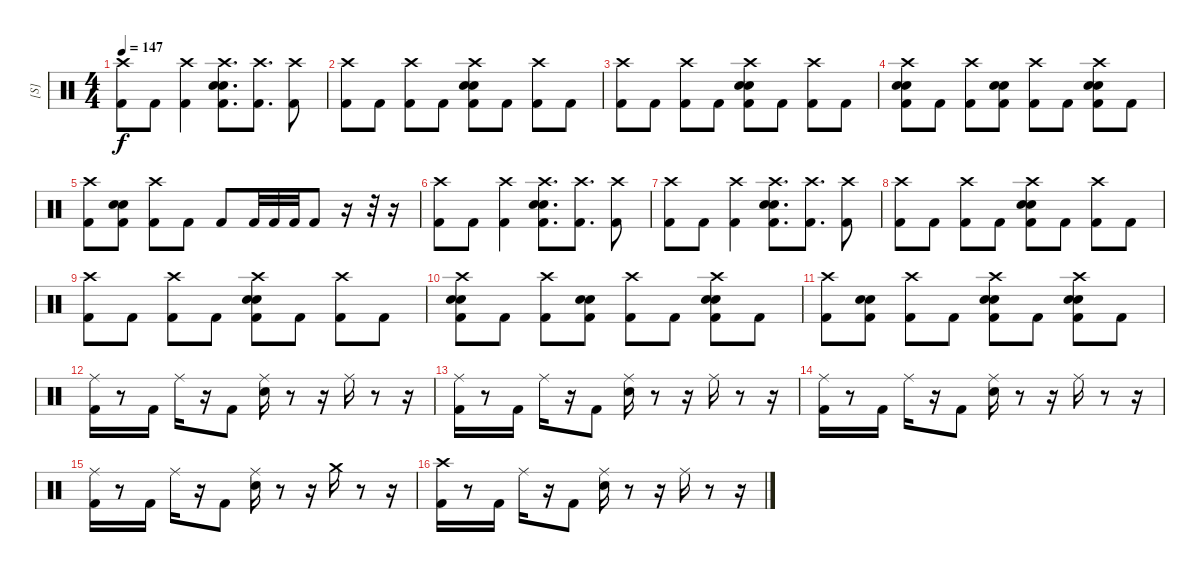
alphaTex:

\track ("[S]" "[S]") {instrument percussion}
\staff {score}
\articulation defaults
\ts (4 4)
\tempo 147
\clef neutral
\ks c
("Crash high (hit)" "Kick (hit) 2").8{dy f} "Kick (hit) 2".8 ("Crash high (hit)" "Kick (hit) 2").4 ("Crash high (hit)" "Snare (hit) 2" "Electric Snare (hit)" "Kick (hit) 2").8{d} ("Crash high (hit)" "Kick (hit) 2").8{d} ("Crash high (hit)" "Kick (hit) 2").8 |
("Crash high (hit)" "Kick (hit) 2").8 "Kick (hit) 2".8 ("Crash high (hit)" "Kick (hit) 2").8 "Kick (hit) 2".8 ("Crash high (hit)" "Snare (hit) 2" "Electric Snare (hit)" "Kick (hit) 2").8 "Kick (hit) 2".8 ("Crash high (hit)" "Kick (hit) 2").8 "Kick (hit) 2".8 |
("Crash high (hit)" "Kick (hit) 2").8 "Kick (hit) 2".8 ("Crash high (hit)" "Kick (hit) 2").8 "Kick (hit) 2".8 ("Crash high (hit)" "Electric Snare (hit)" "Snare (hit) 2" "Kick (hit) 2").8 "Kick (hit) 2".8 ("Crash high (hit)" "Kick (hit) 2").8 "Kick (hit) 2".8 |
("Crash high (hit)" "Snare (hit) 2" "Electric Snare (hit)" "Kick (hit) 2").8 "Kick (hit) 2".8 ("Crash high (hit)" "Kick (hit) 2").8 ("Snare (hit) 2" "Electric Snare (hit)" "Kick (hit) 2").8 ("Crash high (hit)" "Kick (hit) 2").8 "Kick (hit) 2".8 ("Crash high (hit)" "Snare (hit) 2" "Electric Snare (hit)" "Kick (hit) 2").8 "Kick (hit) 2".8 |
("Crash high (hit)" "Kick (hit) 2").8 ("Snare (hit) 2" "Electric Snare (hit)" "Kick (hit) 2").8 ("Crash high (hit)" "Kick (hit) 2").8 "Kick (hit) 2".8 "Kick (hit) 2".8 "Kick (hit) 2".32 "Kick (hit) 2".32 "Kick (hit) 2".32 "Kick (hit) 2".8 r.16 r.32 r.16 |
("Crash high (hit)" "Kick (hit) 2").8 "Kick (hit) 2".8 ("Crash high (hit)" "Kick (hit) 2").4 ("Crash high (hit)" "Electric Snare (hit)" "Snare (hit) 2" "Kick (hit) 2").8{d} ("Crash high (hit)" "Kick (hit) 2").8{d} ("Crash high (hit)" "Kick (hit) 2").8 |
("Crash high (hit)" "Kick (hit) 2").8 "Kick (hit) 2".8 ("Crash high (hit)" "Kick (hit) 2").4 ("Crash high (hit)" "Snare (hit) 2" "Electric Snare (hit)" "Kick (hit) 2").8{d} ("Crash high (hit)" "Kick (hit) 2").8{d} ("Crash high (hit)" "Kick (hit) 2").8 |
("Crash high (hit)" "Kick (hit) 2").8 "Kick (hit) 2".8 ("Crash high (hit)" "Kick (hit) 2").8 "Kick (hit) 2".8 ("Crash high (hit)" "Snare (hit) 2" "Electric Snare (hit)" "Kick (hit) 2").8 "Kick (hit) 2".8 ("Crash high (hit)" "Kick (hit) 2").8 "Kick (hit) 2".8 |
("Crash high (hit)" "Kick (hit) 2").8 "Kick (hit) 2".8 ("Crash high (hit)" "Kick (hit) 2").8 "Kick (hit) 2".8 ("Crash high (hit)" "Electric Snare (hit)" "Snare (hit) 2" "Kick (hit) 2").8 "Kick (hit) 2".8 ("Crash high (hit)" "Kick (hit) 2").8 "Kick (hit) 2".8 |
("Crash high (hit)" "Snare (hit) 2" "Electric Snare (hit)" "Kick (hit) 2").8 "Kick (hit) 2".8 ("Crash high (hit)" "Kick (hit) 2").8 ("Snare (hit) 2" "Electric Snare (hit)" "Kick (hit) 2").8 ("Crash high (hit)" "Kick (hit) 2").8 "Kick (hit) 2".8 ("Crash high (hit)" "Snare (hit) 2" "Electric Snare (hit)" "Kick (hit) 2").8 "Kick (hit) 2".8 |
("Crash high (hit)" "Kick (hit) 2").8 ("Snare (hit) 2" "Electric Snare (hit)" "Kick (hit) 2").8 ("Crash high (hit)" "Kick (hit) 2").8 "Kick (hit) 2".8 ("Crash high (hit)" "Snare (hit) 2" "Electric Snare (hit)" "Kick (hit) 2").8 "Kick (hit) 2".8 ("Crash high (hit)" "Snare (hit) 2" "Electric Snare (hit)" "Kick (hit) 2").8 "Kick (hit) 2".8 |
("Ride (middle)" "Kick (hit) 2").16 r.8 "Kick (hit) 2".16 "Ride (middle)".16 r.16 "Kick (hit) 2".8 ("Ride (middle)" "Snare (hit) 2").16 r.8 r.16 "Ride (middle)".16 r.8 r.16 |
("Ride (middle)" "Kick (hit) 2").16 r.8 "Kick (hit) 2".16 "Ride (middle)".16 r.16 "Kick (hit) 2".8 ("Ride (middle)" "Snare (hit) 2").16 r.8 r.16 "Ride (middle)".16 r.8 r.16 |
("Ride (middle)" "Kick (hit) 2").16 r.8 "Kick (hit) 2".16 "Ride (middle)".16 r.16 "Kick (hit) 2".8 ("Ride (middle)" "Snare (hit) 2").16 r.8 r.16 "Ride (middle)".16 r.8 r.16 |
("Ride (middle)" "Kick (hit) 2").16 r.8 "Kick (hit) 2".16 "Ride (middle)".16 r.16 "Kick (hit) 2".8 ("Ride (middle)" "Snare (hit) 2").16 r.8 r.16 "Crash medium (hit)".16 r.8 r.16 |
("Crash high (hit)" "Kick (hit) 2").16 r.8 "Kick (hit) 2".16 "Ride (middle)".16 r.16 "Kick (hit) 2".8 ("Ride (middle)" "Snare (hit) 2").16 r.8 r.16 "Ride (middle)".16 r.8 r.16
